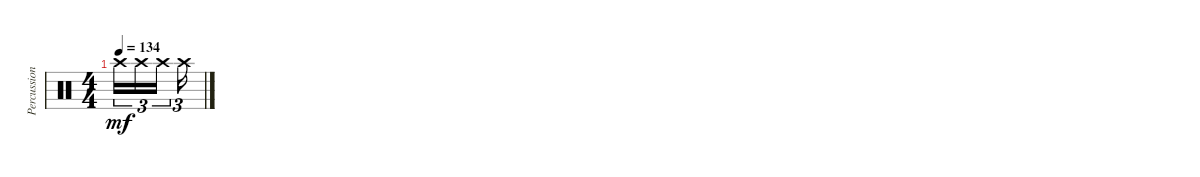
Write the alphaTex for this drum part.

\track ("Percussion" "Percussion") {instrument percussion}
\staff {score}
\articulation defaults
\ts (4 4)
\tempo 134
\clef neutral
\ks c "Crash high (hit)".16{tu (3 2) dy mf} "Crash high (hit)".16{tu (3 2)} "Crash high (hit)".16{tu (3 2) beam splitsecondary} "Crash high (hit)".16{tu (3 2)}
